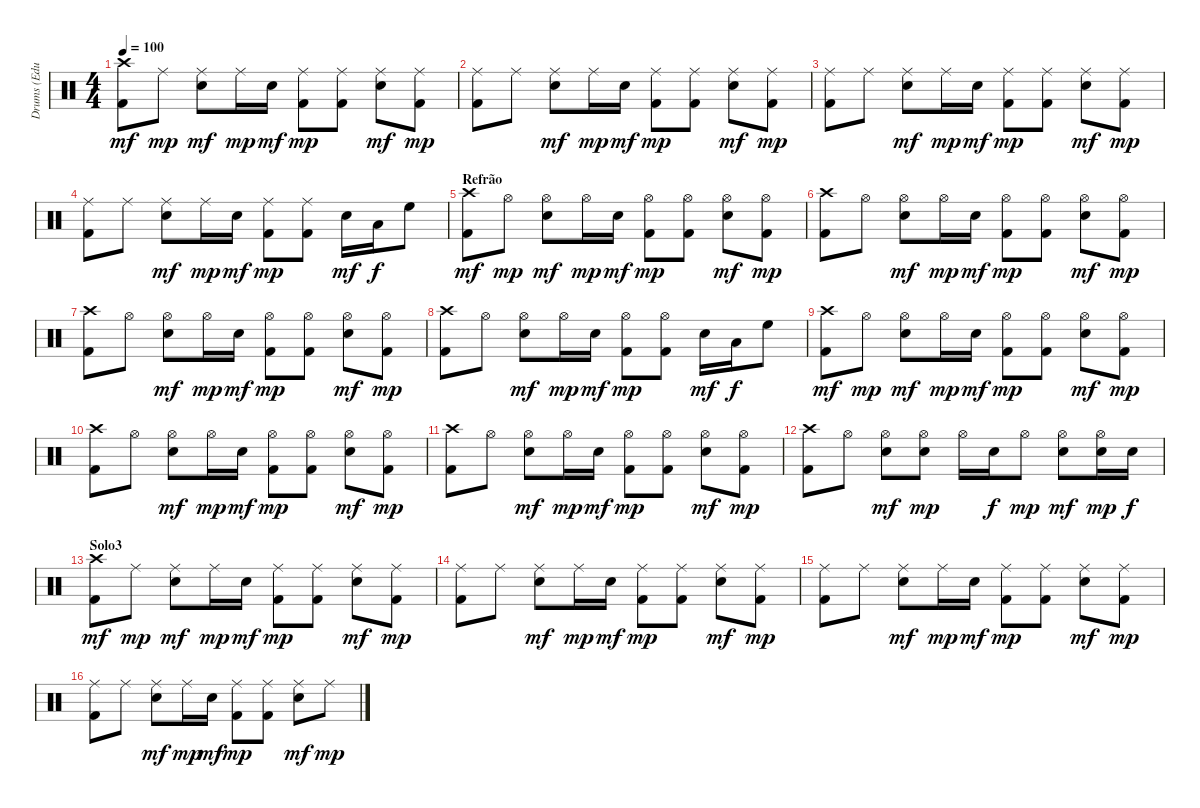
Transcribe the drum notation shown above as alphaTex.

\track ("Drums (Eduardo)" "Drums (Edu") {instrument percussion}
\staff {score}
\articulation defaults
\ts (4 4)
\tempo 100
\clef neutral
\ks c
("Crash high (hit)" "Kick (hit) 2").8{dy mf} "Ride (middle)".8{dy mp} ("Ride (middle)" "Electric Snare (hit)").8{dy mf} "Ride (middle)".16{dy mp} "Electric Snare (hit)".16{dy mf} ("Ride (middle)" "Kick (hit) 2").8{dy mp} ("Ride (middle)" "Kick (hit) 2").8 ("Ride (middle)" "Electric Snare (hit)").8{dy mf} ("Ride (middle)" "Kick (hit) 2").8{dy mp} |
("Ride (middle)" "Kick (hit) 2").8 "Ride (middle)".8 ("Ride (middle)" "Electric Snare (hit)").8{dy mf} "Ride (middle)".16{dy mp} "Electric Snare (hit)".16{dy mf} ("Ride (middle)" "Kick (hit) 2").8{dy mp} ("Ride (middle)" "Kick (hit) 2").8 ("Ride (middle)" "Electric Snare (hit)").8{dy mf} ("Ride (middle)" "Kick (hit) 2").8{dy mp} |
("Ride (middle)" "Kick (hit) 2").8 "Ride (middle)".8 ("Ride (middle)" "Electric Snare (hit)").8{dy mf} "Ride (middle)".16{dy mp} "Electric Snare (hit)".16{dy mf} ("Ride (middle)" "Kick (hit) 2").8{dy mp} ("Ride (middle)" "Kick (hit) 2").8 ("Ride (middle)" "Electric Snare (hit)").8{dy mf} ("Ride (middle)" "Kick (hit) 2").8{dy mp} |
("Ride (middle)" "Kick (hit) 2").8 "Ride (middle)".8 ("Ride (middle)" "Electric Snare (hit)").8{dy mf} "Ride (middle)".16{dy mp} "Electric Snare (hit)".16{dy mf} ("Ride (middle)" "Kick (hit) 2").8{dy mp} ("Ride (middle)" "Kick (hit) 2").8 "Electric Snare (hit)".16{dy mf} "Low Tom (hit)".16{dy f} "High Floor Tom (hit)".8 |
\section ("" "Refrão")
("Crash high (hit)" "Kick (hit) 2").8{dy mf} "Hi-Hat (open)".8{dy mp} ("Hi-Hat (open)" "Electric Snare (hit)").8{dy mf} "Hi-Hat (open)".16{dy mp} "Electric Snare (hit)".16{dy mf} ("Hi-Hat (open)" "Kick (hit) 2").8{dy mp} ("Hi-Hat (open)" "Kick (hit) 2").8 ("Hi-Hat (open)" "Electric Snare (hit)").8{dy mf} ("Hi-Hat (open)" "Kick (hit) 2").8{dy mp} |
("Crash high (hit)" "Kick (hit) 2").8 "Hi-Hat (open)".8 ("Hi-Hat (open)" "Electric Snare (hit)").8{dy mf} "Hi-Hat (open)".16{dy mp} "Electric Snare (hit)".16{dy mf} ("Hi-Hat (open)" "Kick (hit) 2").8{dy mp} ("Hi-Hat (open)" "Kick (hit) 2").8 ("Hi-Hat (open)" "Electric Snare (hit)").8{dy mf} ("Hi-Hat (open)" "Kick (hit) 2").8{dy mp} |
("Crash high (hit)" "Kick (hit) 2").8 "Hi-Hat (open)".8 ("Hi-Hat (open)" "Electric Snare (hit)").8{dy mf} "Hi-Hat (open)".16{dy mp} "Electric Snare (hit)".16{dy mf} ("Hi-Hat (open)" "Kick (hit) 2").8{dy mp} ("Hi-Hat (open)" "Kick (hit) 2").8 ("Hi-Hat (open)" "Electric Snare (hit)").8{dy mf} ("Hi-Hat (open)" "Kick (hit) 2").8{dy mp} |
("Crash high (hit)" "Kick (hit) 2").8 "Hi-Hat (open)".8 ("Hi-Hat (open)" "Electric Snare (hit)").8{dy mf} "Hi-Hat (open)".16{dy mp} "Electric Snare (hit)".16{dy mf} ("Hi-Hat (open)" "Kick (hit) 2").8{dy mp} ("Hi-Hat (open)" "Kick (hit) 2").8 "Electric Snare (hit)".16{dy mf} "Low Tom (hit)".16{dy f} "High Floor Tom (hit)".8 |
("Crash high (hit)" "Kick (hit) 2").8{dy mf} "Hi-Hat (open)".8{dy mp} ("Hi-Hat (open)" "Electric Snare (hit)").8{dy mf} "Hi-Hat (open)".16{dy mp} "Electric Snare (hit)".16{dy mf} ("Hi-Hat (open)" "Kick (hit) 2").8{dy mp} ("Hi-Hat (open)" "Kick (hit) 2").8 ("Hi-Hat (open)" "Electric Snare (hit)").8{dy mf} ("Hi-Hat (open)" "Kick (hit) 2").8{dy mp} |
("Crash high (hit)" "Kick (hit) 2").8 "Hi-Hat (open)".8 ("Hi-Hat (open)" "Electric Snare (hit)").8{dy mf} "Hi-Hat (open)".16{dy mp} "Electric Snare (hit)".16{dy mf} ("Hi-Hat (open)" "Kick (hit) 2").8{dy mp} ("Hi-Hat (open)" "Kick (hit) 2").8 ("Hi-Hat (open)" "Electric Snare (hit)").8{dy mf} ("Hi-Hat (open)" "Kick (hit) 2").8{dy mp} |
("Crash high (hit)" "Kick (hit) 2").8 "Hi-Hat (open)".8 ("Hi-Hat (open)" "Electric Snare (hit)").8{dy mf} "Hi-Hat (open)".16{dy mp} "Electric Snare (hit)".16{dy mf} ("Hi-Hat (open)" "Kick (hit) 2").8{dy mp} ("Hi-Hat (open)" "Kick (hit) 2").8 ("Hi-Hat (open)" "Electric Snare (hit)").8{dy mf} ("Hi-Hat (open)" "Kick (hit) 2").8{dy mp} |
("Crash high (hit)" "Kick (hit) 2").8 "Hi-Hat (open)".8 ("Hi-Hat (open)" "Electric Snare (hit)").8{dy mf} ("Hi-Hat (open)" "Electric Snare (hit)").8{dy mp} "Hi-Hat (open)".16 "Electric Snare (hit)".16{dy f} "Hi-Hat (open)".8{dy mp} ("Hi-Hat (open)" "Electric Snare (hit)").8{dy mf} ("Hi-Hat (open)" "Electric Snare (hit)").16{dy mp} "Electric Snare (hit)".16{dy f} |
\section ("" "Solo3")
("Crash high (hit)" "Kick (hit) 2").8{dy mf} "Ride (middle)".8{dy mp} ("Ride (middle)" "Electric Snare (hit)").8{dy mf} "Ride (middle)".16{dy mp} "Electric Snare (hit)".16{dy mf} ("Ride (middle)" "Kick (hit) 2").8{dy mp} ("Ride (middle)" "Kick (hit) 2").8 ("Ride (middle)" "Electric Snare (hit)").8{dy mf} ("Ride (middle)" "Kick (hit) 2").8{dy mp} |
("Ride (middle)" "Kick (hit) 2").8 "Ride (middle)".8 ("Ride (middle)" "Electric Snare (hit)").8{dy mf} "Ride (middle)".16{dy mp} "Electric Snare (hit)".16{dy mf} ("Ride (middle)" "Kick (hit) 2").8{dy mp} ("Ride (middle)" "Kick (hit) 2").8 ("Ride (middle)" "Electric Snare (hit)").8{dy mf} ("Ride (middle)" "Kick (hit) 2").8{dy mp} |
("Ride (middle)" "Kick (hit) 2").8 "Ride (middle)".8 ("Ride (middle)" "Electric Snare (hit)").8{dy mf} "Ride (middle)".16{dy mp} "Electric Snare (hit)".16{dy mf} ("Ride (middle)" "Kick (hit) 2").8{dy mp} ("Ride (middle)" "Kick (hit) 2").8 ("Ride (middle)" "Electric Snare (hit)").8{dy mf} ("Ride (middle)" "Kick (hit) 2").8{dy mp} |
("Ride (middle)" "Kick (hit) 2").8 "Ride (middle)".8 ("Ride (middle)" "Electric Snare (hit)").8{dy mf} "Ride (middle)".16{dy mp} "Electric Snare (hit)".16{dy mf} ("Ride (middle)" "Kick (hit) 2").8{dy mp} ("Ride (middle)" "Kick (hit) 2").8 ("Ride (middle)" "Electric Snare (hit)").8{dy mf} "Ride (middle)".8{dy mp}
